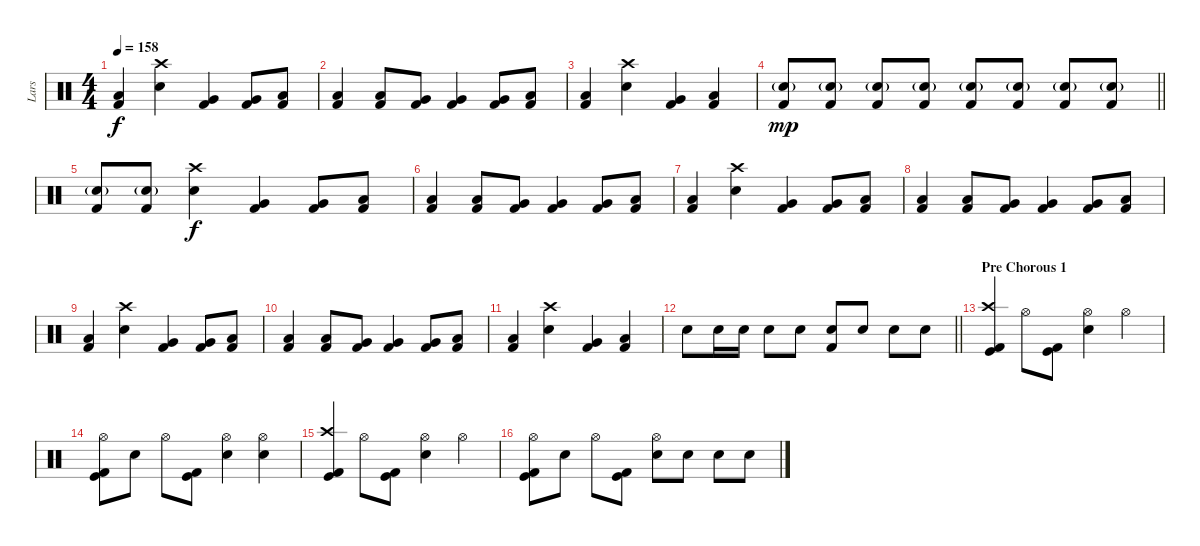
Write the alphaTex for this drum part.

\track ("Lars" "Lars") {instrument percussion}
\staff {score}
\articulation defaults
\ts (4 4)
\tempo 158
\clef neutral
\ks c
("Kick (hit) 2" "Low Tom (hit)").4{dy f} ("Crash high (hit)" "Electric Snare (hit)").4 ("Kick (hit) 2" "Very Low Tom (hit)").4 ("Kick (hit) 2" "Very Low Tom (hit)").8 ("Kick (hit) 2" "Low Floor Tom (hit)").8 |
("Kick (hit) 2" "Low Tom (hit)").4 ("Kick (hit) 2" "Low Tom (hit)").8 ("Kick (hit) 2" "Very Low Tom (hit)").8 ("Kick (hit) 2" "Very Low Tom (hit)").4 ("Kick (hit) 2" "Very Low Tom (hit)").8 ("Kick (hit) 2" "Low Floor Tom (hit)").8 |
("Kick (hit) 2" "Low Tom (hit)").4 ("Crash high (hit)" "Electric Snare (hit)").4 ("Kick (hit) 2" "Very Low Tom (hit)").4 ("Kick (hit) 2" "Low Floor Tom (hit)").4 |
\barLineRight lightlight
("Electric Snare (hit)"{g} "Kick (hit) 2").8{dy mp} ("Electric Snare (hit)"{g} "Kick (hit) 2").8 ("Electric Snare (hit)"{g} "Kick (hit) 2").8 ("Electric Snare (hit)"{g} "Kick (hit) 2").8 ("Electric Snare (hit)"{g} "Kick (hit) 2").8 ("Electric Snare (hit)"{g} "Kick (hit) 2").8 ("Electric Snare (hit)"{g} "Kick (hit) 2").8 ("Electric Snare (hit)"{g} "Kick (hit) 2").8 |
\section ("" "")
("Electric Snare (hit)"{g} "Kick (hit) 2").8 ("Electric Snare (hit)"{g} "Kick (hit) 2").8 ("Crash high (hit)" "Electric Snare (hit)").4{dy f} ("Kick (hit) 2" "Very Low Tom (hit)").4 ("Kick (hit) 2" "Very Low Tom (hit)").8 ("Kick (hit) 2" "Low Floor Tom (hit)").8 |
("Kick (hit) 2" "Low Tom (hit)").4 ("Kick (hit) 2" "Low Tom (hit)").8 ("Kick (hit) 2" "Very Low Tom (hit)").8 ("Kick (hit) 2" "Very Low Tom (hit)").4 ("Kick (hit) 2" "Very Low Tom (hit)").8 ("Kick (hit) 2" "Low Floor Tom (hit)").8 |
("Kick (hit) 2" "Low Tom (hit)").4 ("Crash high (hit)" "Electric Snare (hit)").4 ("Kick (hit) 2" "Very Low Tom (hit)").4 ("Kick (hit) 2" "Very Low Tom (hit)").8 ("Kick (hit) 2" "Low Floor Tom (hit)").8 |
("Kick (hit) 2" "Low Tom (hit)").4 ("Kick (hit) 2" "Low Tom (hit)").8 ("Kick (hit) 2" "Very Low Tom (hit)").8 ("Kick (hit) 2" "Very Low Tom (hit)").4 ("Kick (hit) 2" "Very Low Tom (hit)").8 ("Kick (hit) 2" "Low Floor Tom (hit)").8 |
("Kick (hit) 2" "Low Tom (hit)").4 ("Crash high (hit)" "Electric Snare (hit)").4 ("Kick (hit) 2" "Very Low Tom (hit)").4 ("Kick (hit) 2" "Very Low Tom (hit)").8 ("Kick (hit) 2" "Low Floor Tom (hit)").8 |
("Kick (hit) 2" "Low Tom (hit)").4 ("Kick (hit) 2" "Low Tom (hit)").8 ("Kick (hit) 2" "Very Low Tom (hit)").8 ("Kick (hit) 2" "Very Low Tom (hit)").4 ("Kick (hit) 2" "Very Low Tom (hit)").8 ("Kick (hit) 2" "Low Floor Tom (hit)").8 |
("Kick (hit) 2" "Low Tom (hit)").4 ("Crash high (hit)" "Electric Snare (hit)").4 ("Kick (hit) 2" "Very Low Tom (hit)").4 ("Kick (hit) 2" "Low Floor Tom (hit)").4 |
\barLineRight lightlight "Electric Snare (hit)".8 "Electric Snare (hit)".16 "Electric Snare (hit)".16 "Electric Snare (hit)".8 "Electric Snare (hit)".8
("Electric Snare (hit)" "Kick (hit) 2").8 "Electric Snare (hit)".8 "Electric Snare (hit)".8 "Electric Snare (hit)".8 |
\section ("" "Pre Chorous 1")
("Crash high (hit)" "Kick (hit)" "Kick (hit) 2").4 "Hi-Hat (open)".8 ("Kick (hit)" "Kick (hit) 2").8 ("Hi-Hat (open)" "Electric Snare (hit)").4 "Hi-Hat (open)".4 |
("Hi-Hat (open)" "Kick (hit)" "Kick (hit) 2").8 "Electric Snare (hit)".8 "Hi-Hat (open)".8 ("Kick (hit)" "Kick (hit) 2").8 ("Hi-Hat (open)" "Electric Snare (hit)").4 ("Hi-Hat (open)" "Electric Snare (hit)").4 |
("Crash high (hit)" "Kick (hit)" "Kick (hit) 2").4 "Hi-Hat (open)".8 ("Kick (hit)" "Kick (hit) 2").8 ("Hi-Hat (open)" "Electric Snare (hit)").4 "Hi-Hat (open)".4 |
("Hi-Hat (open)" "Kick (hit)" "Kick (hit) 2").8 "Electric Snare (hit)".8 "Hi-Hat (open)".8 ("Kick (hit)" "Kick (hit) 2").8 ("Hi-Hat (open)" "Electric Snare (hit)").8 "Electric Snare (hit)".8 "Electric Snare (hit)".8 "Electric Snare (hit)".8
